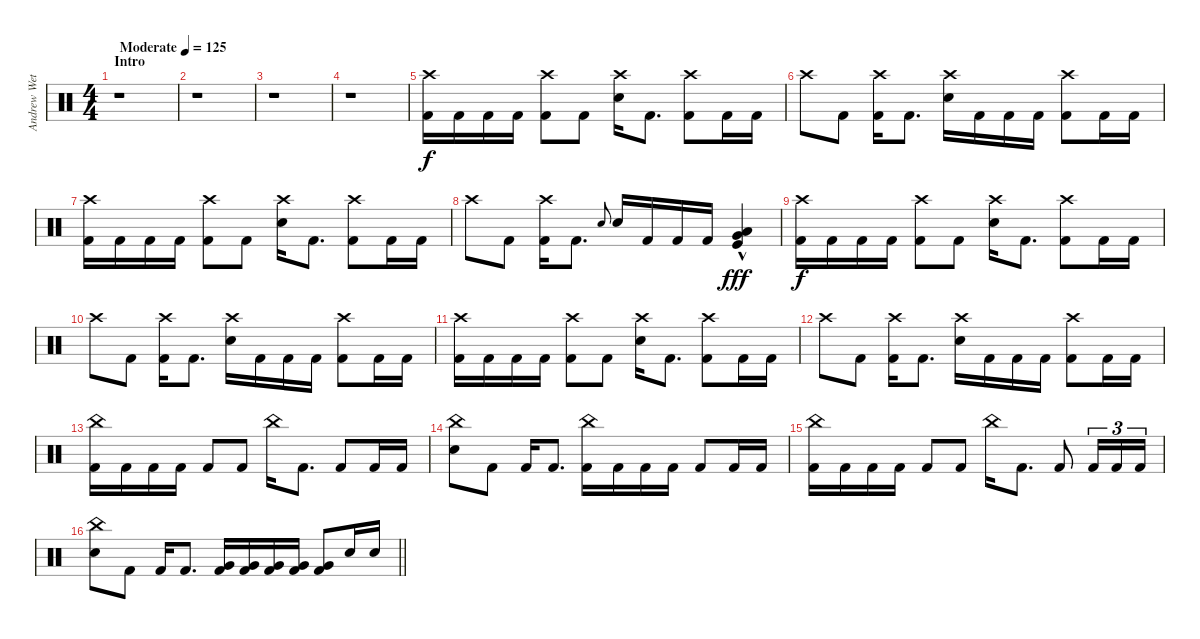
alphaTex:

\track ("Andrew Wetzel" "Andrew Wet") {instrument percussion}
\staff {score}
\articulation defaults
\ts (4 4)
\section ("" "Intro")
\tempo (125 "Moderate")
\clef neutral
\ks c
r.1{dy f volume 5} |
r.1 |
r.1 |
r.1 |
("Crash high (hit)" "Kick (hit) 2").16{volume 13} "Kick (hit) 2".16 "Kick (hit) 2".16 "Kick (hit) 2".16 ("Crash high (hit)" "Kick (hit) 2").8 "Kick (hit) 2".8 ("Crash high (hit)" "Snare (hit) 2").16 "Kick (hit) 2".8{d} ("Crash high (hit)" "Kick (hit) 2").8 "Kick (hit) 2".16 "Kick (hit) 2".16 |
"Crash high (hit)".8 "Kick (hit) 2".8 ("Crash high (hit)" "Kick (hit) 2").16 "Kick (hit) 2".8{d} ("Crash high (hit)" "Snare (hit) 2").16 "Kick (hit) 2".16 "Kick (hit) 2".16 "Kick (hit) 2".16 ("Crash high (hit)" "Kick (hit) 2").8 "Kick (hit) 2".16 "Kick (hit) 2".16 |
("Crash high (hit)" "Kick (hit) 2").16 "Kick (hit) 2".16 "Kick (hit) 2".16 "Kick (hit) 2".16 ("Crash high (hit)" "Kick (hit) 2").8 "Kick (hit) 2".8 ("Crash high (hit)" "Snare (hit) 2").16 "Kick (hit) 2".8{d} ("Crash high (hit)" "Kick (hit) 2").8 "Kick (hit) 2".16 "Kick (hit) 2".16 |
"Crash high (hit)".8 "Kick (hit) 2".8 ("Crash high (hit)" "Kick (hit) 2").16 "Kick (hit) 2".8{d} "Snare (hit) 2".8{gr onbeat} "Snare (hit) 2".16 "Kick (hit) 2".16 "Kick (hit) 2".16 "Kick (hit) 2".16 ("Very Low Tom (hit)"{hac} "Low Floor Tom (hit)"{hac} "Kick (hit)").4{dy fff} |
("Crash high (hit)" "Kick (hit) 2").16{dy f} "Kick (hit) 2".16 "Kick (hit) 2".16 "Kick (hit) 2".16 ("Crash high (hit)" "Kick (hit) 2").8 "Kick (hit) 2".8 ("Crash high (hit)" "Snare (hit) 2").16 "Kick (hit) 2".8{d} ("Crash high (hit)" "Kick (hit) 2").8 "Kick (hit) 2".16 "Kick (hit) 2".16 |
"Crash high (hit)".8 "Kick (hit) 2".8 ("Crash high (hit)" "Kick (hit) 2").16 "Kick (hit) 2".8{d} ("Crash high (hit)" "Snare (hit) 2").16 "Kick (hit) 2".16 "Kick (hit) 2".16 "Kick (hit) 2".16 ("Crash high (hit)" "Kick (hit) 2").8 "Kick (hit) 2".16 "Kick (hit) 2".16 |
("Crash high (hit)" "Kick (hit) 2").16 "Kick (hit) 2".16 "Kick (hit) 2".16 "Kick (hit) 2".16 ("Crash high (hit)" "Kick (hit) 2").8 "Kick (hit) 2".8 ("Crash high (hit)" "Snare (hit) 2").16 "Kick (hit) 2".8{d} ("Crash high (hit)" "Kick (hit) 2").8 "Kick (hit) 2".16 "Kick (hit) 2".16 |
"Crash high (hit)".8 "Kick (hit) 2".8 ("Crash high (hit)" "Kick (hit) 2").16 "Kick (hit) 2".8{d} ("Crash high (hit)" "Snare (hit) 2").16 "Kick (hit) 2".16 "Kick (hit) 2".16 "Kick (hit) 2".16 ("Crash high (hit)" "Kick (hit) 2").8 "Kick (hit) 2".16 "Kick (hit) 2".16 |
("China (hit)" "Kick (hit) 2").16 "Kick (hit) 2".16 "Kick (hit) 2".16 "Kick (hit) 2".16 "Kick (hit) 2".8 "Kick (hit) 2".8 "China (hit)".16 "Kick (hit) 2".8{d} "Kick (hit) 2".8 "Kick (hit) 2".16 "Kick (hit) 2".16 |
("China (hit)" "Snare (hit) 2").8 "Kick (hit) 2".8 "Kick (hit) 2".16 "Kick (hit) 2".8{d} ("China (hit)" "Kick (hit) 2").16 "Kick (hit) 2".16 "Kick (hit) 2".16 "Kick (hit) 2".16 "Kick (hit) 2".8 "Kick (hit) 2".16 "Kick (hit) 2".16 |
("China (hit)" "Kick (hit) 2").16 "Kick (hit) 2".16 "Kick (hit) 2".16 "Kick (hit) 2".16 "Kick (hit) 2".8 "Kick (hit) 2".8 "China (hit)".16 "Kick (hit) 2".8{d} "Kick (hit) 2".8 "Kick (hit) 2".16{tu (3 2)} "Kick (hit) 2".16{tu (3 2)} "Kick (hit) 2".16{tu (3 2)} |
\barLineRight lightlight
("China (hit)" "Snare (hit) 2").8 "Kick (hit) 2".8 "Kick (hit) 2".16 "Kick (hit) 2".8{d} ("Very Low Tom (hit)" "Kick (hit) 2").16 ("Very Low Tom (hit)" "Kick (hit) 2").16 ("Very Low Tom (hit)" "Kick (hit) 2").16 ("Very Low Tom (hit)" "Kick (hit) 2").16 ("Very Low Tom (hit)" "Kick (hit) 2").8 "Snare (hit) 2".16 "Snare (hit) 2".16
